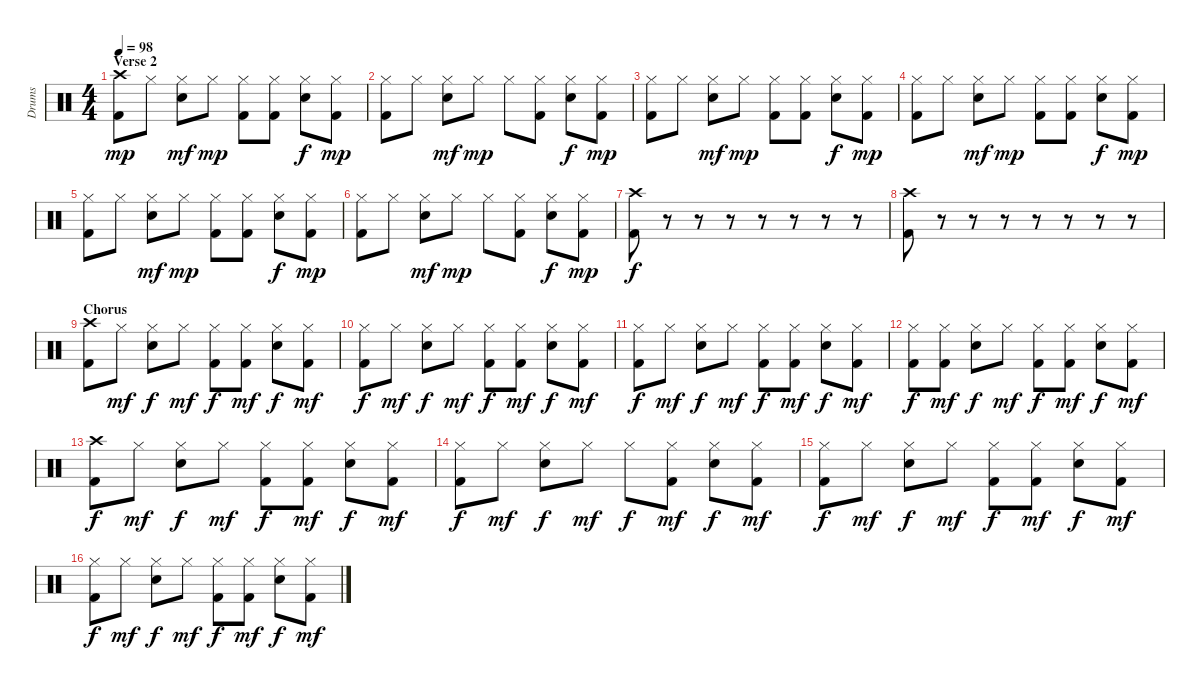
\track ("Drums" "Drums") {instrument percussion}
\staff {score}
\articulation defaults
\ts (4 4)
\section ("" "Verse 2")
\tempo 98
\clef neutral
\ks c
("Crash high (hit)" "Kick (hit) 2").8{dy mp} "Hi-Hat (closed)".8 ("Hi-Hat (closed)" "Snare (hit) 2").8{dy mf} "Hi-Hat (closed)".8{dy mp} ("Hi-Hat (closed)" "Kick (hit) 2").8 ("Hi-Hat (closed)" "Kick (hit) 2").8 ("Hi-Hat (closed)" "Snare (hit) 2").8{dy f} ("Hi-Hat (closed)" "Kick (hit) 2").8{dy mp} |
("Hi-Hat (closed)" "Kick (hit) 2").8 "Hi-Hat (closed)".8 ("Hi-Hat (closed)" "Snare (hit) 2").8{dy mf} "Hi-Hat (closed)".8{dy mp} "Hi-Hat (closed)".8 ("Hi-Hat (closed)" "Kick (hit) 2").8 ("Hi-Hat (closed)" "Snare (hit) 2").8{dy f} ("Hi-Hat (closed)" "Kick (hit) 2").8{dy mp} |
("Hi-Hat (closed)" "Kick (hit) 2").8 "Hi-Hat (closed)".8 ("Hi-Hat (closed)" "Snare (hit) 2").8{dy mf} "Hi-Hat (closed)".8{dy mp} ("Hi-Hat (closed)" "Kick (hit) 2").8 ("Hi-Hat (closed)" "Kick (hit) 2").8 ("Hi-Hat (closed)" "Snare (hit) 2").8{dy f} ("Hi-Hat (closed)" "Kick (hit) 2").8{dy mp} |
("Hi-Hat (closed)" "Kick (hit) 2").8 "Hi-Hat (closed)".8 ("Hi-Hat (closed)" "Snare (hit) 2").8{dy mf} "Hi-Hat (closed)".8{dy mp} ("Hi-Hat (closed)" "Kick (hit) 2").8 ("Hi-Hat (closed)" "Kick (hit) 2").8 ("Hi-Hat (closed)" "Snare (hit) 2").8{dy f} ("Hi-Hat (closed)" "Kick (hit) 2").8{dy mp} |
("Hi-Hat (closed)" "Kick (hit) 2").8 "Hi-Hat (closed)".8 ("Hi-Hat (closed)" "Snare (hit) 2").8{dy mf} "Hi-Hat (closed)".8{dy mp} ("Hi-Hat (closed)" "Kick (hit) 2").8 ("Hi-Hat (closed)" "Kick (hit) 2").8 ("Hi-Hat (closed)" "Snare (hit) 2").8{dy f} ("Hi-Hat (closed)" "Kick (hit) 2").8{dy mp} |
("Hi-Hat (closed)" "Kick (hit) 2").8 "Hi-Hat (closed)".8 ("Hi-Hat (closed)" "Snare (hit) 2").8{dy mf} "Hi-Hat (closed)".8{dy mp} "Hi-Hat (closed)".8 ("Hi-Hat (closed)" "Kick (hit) 2").8 ("Hi-Hat (closed)" "Snare (hit) 2").8{dy f} ("Hi-Hat (closed)" "Kick (hit) 2").8{dy mp} |
("Crash high (hit)" "Kick (hit) 2").8{dy f} r.8 r.8 r.8 r.8 r.8 r.8 r.8 |
("Crash high (hit)" "Kick (hit) 2").8 r.8 r.8 r.8 r.8 r.8 r.8 r.8 |
\section ("" "Chorus")
("Crash high (hit)" "Kick (hit) 2").8 "Hi-Hat (closed)".8{dy mf} ("Hi-Hat (closed)" "Snare (hit) 2").8{dy f} "Hi-Hat (closed)".8{dy mf} ("Hi-Hat (closed)" "Kick (hit) 2").8{dy f} ("Hi-Hat (closed)" "Kick (hit) 2").8{dy mf} ("Hi-Hat (closed)" "Snare (hit) 2").8{dy f} ("Hi-Hat (closed)" "Kick (hit) 2").8{dy mf} |
("Hi-Hat (closed)" "Kick (hit) 2").8{dy f} "Hi-Hat (closed)".8{dy mf} ("Hi-Hat (closed)" "Snare (hit) 2").8{dy f} "Hi-Hat (closed)".8{dy mf} ("Hi-Hat (closed)" "Kick (hit) 2").8{dy f} ("Hi-Hat (closed)" "Kick (hit) 2").8{dy mf} ("Hi-Hat (closed)" "Snare (hit) 2").8{dy f} ("Hi-Hat (closed)" "Kick (hit) 2").8{dy mf} |
("Hi-Hat (closed)" "Kick (hit) 2").8{dy f} "Hi-Hat (closed)".8{dy mf} ("Hi-Hat (closed)" "Snare (hit) 2").8{dy f} "Hi-Hat (closed)".8{dy mf} ("Hi-Hat (closed)" "Kick (hit) 2").8{dy f} ("Hi-Hat (closed)" "Kick (hit) 2").8{dy mf} ("Hi-Hat (closed)" "Snare (hit) 2").8{dy f} ("Hi-Hat (closed)" "Kick (hit) 2").8{dy mf} |
("Hi-Hat (closed)" "Kick (hit) 2").8{dy f} ("Hi-Hat (closed)" "Kick (hit) 2").8{dy mf} ("Hi-Hat (closed)" "Snare (hit) 2").8{dy f} "Hi-Hat (closed)".8{dy mf} ("Hi-Hat (closed)" "Kick (hit) 2").8{dy f} ("Hi-Hat (closed)" "Kick (hit) 2").8{dy mf} ("Hi-Hat (closed)" "Snare (hit) 2").8{dy f} ("Hi-Hat (closed)" "Kick (hit) 2").8{dy mf} |
("Crash high (hit)" "Kick (hit) 2").8{dy f} "Hi-Hat (closed)".8{dy mf} ("Hi-Hat (closed)" "Snare (hit) 2").8{dy f} "Hi-Hat (closed)".8{dy mf} ("Hi-Hat (closed)" "Kick (hit) 2").8{dy f} ("Hi-Hat (closed)" "Kick (hit) 2").8{dy mf} ("Hi-Hat (closed)" "Snare (hit) 2").8{dy f} ("Hi-Hat (closed)" "Kick (hit) 2").8{dy mf} |
("Hi-Hat (closed)" "Kick (hit) 2").8{dy f} "Hi-Hat (closed)".8{dy mf} ("Hi-Hat (closed)" "Snare (hit) 2").8{dy f} "Hi-Hat (closed)".8{dy mf} "Hi-Hat (closed)".8{dy f} ("Hi-Hat (closed)" "Kick (hit) 2").8{dy mf} ("Hi-Hat (closed)" "Snare (hit) 2").8{dy f} ("Hi-Hat (closed)" "Kick (hit) 2").8{dy mf} |
("Hi-Hat (closed)" "Kick (hit) 2").8{dy f} "Hi-Hat (closed)".8{dy mf} ("Hi-Hat (closed)" "Snare (hit) 2").8{dy f} "Hi-Hat (closed)".8{dy mf} ("Hi-Hat (closed)" "Kick (hit) 2").8{dy f} ("Hi-Hat (closed)" "Kick (hit) 2").8{dy mf} ("Hi-Hat (closed)" "Snare (hit) 2").8{dy f} ("Hi-Hat (closed)" "Kick (hit) 2").8{dy mf} |
("Hi-Hat (closed)" "Kick (hit) 2").8{dy f} "Hi-Hat (closed)".8{dy mf} ("Hi-Hat (closed)" "Snare (hit) 2").8{dy f} "Hi-Hat (closed)".8{dy mf} ("Hi-Hat (closed)" "Kick (hit) 2").8{dy f} ("Hi-Hat (closed)" "Kick (hit) 2").8{dy mf} ("Hi-Hat (closed)" "Snare (hit) 2").8{dy f} ("Hi-Hat (closed)" "Kick (hit) 2").8{dy mf}
